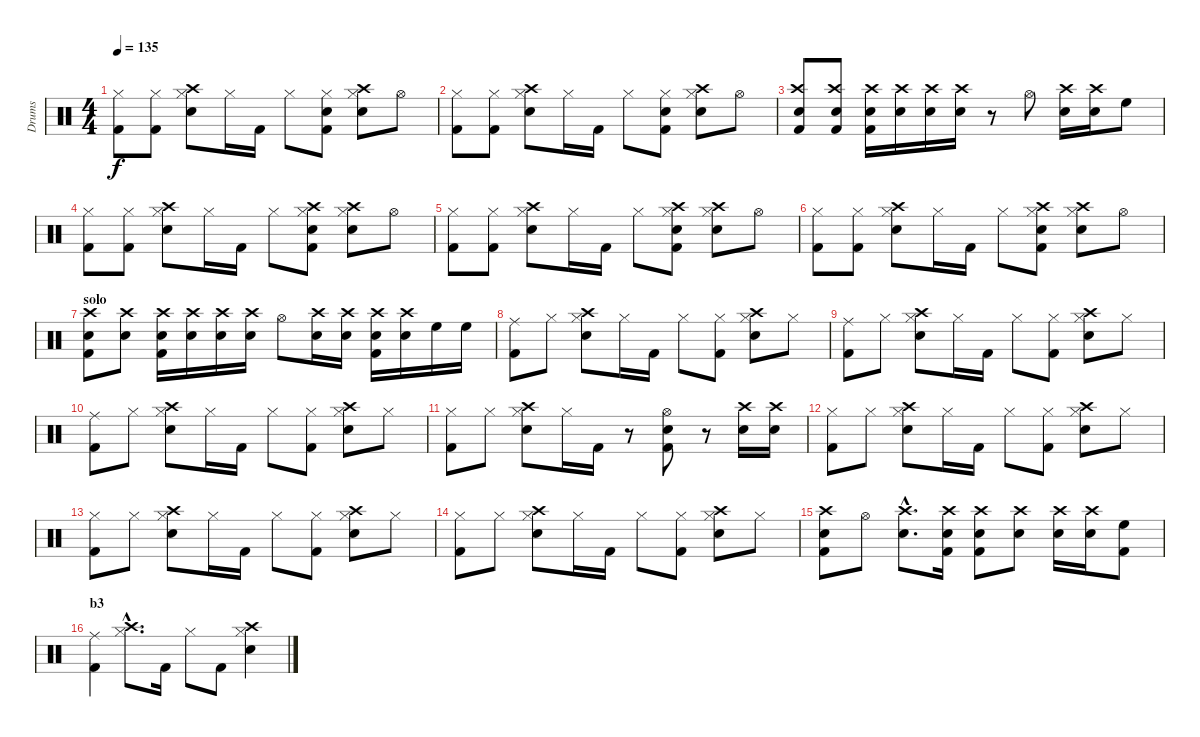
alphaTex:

\track ("Drums" "Drums") {instrument percussion}
\staff {score}
\articulation defaults
\ts (4 4)
\tempo 135
\clef neutral
\ks c
("Hi-Hat (closed)" "Kick (hit) 2").8{dy f} ("Hi-Hat (closed)" "Kick (hit) 2").8 ("Crash high (hit)" "Hi-Hat (closed)" "Snare (hit) 2").8 "Hi-Hat (closed)".16 "Kick (hit) 2".16 "Hi-Hat (closed)".8 ("Hi-Hat (closed)" "Snare (hit) 2" "Kick (hit) 2").8 ("Crash high (hit)" "Hi-Hat (closed)" "Snare (hit) 2").8 "Hi-Hat (open)".8 |
("Hi-Hat (closed)" "Kick (hit) 2").8 ("Hi-Hat (closed)" "Kick (hit) 2").8 ("Crash high (hit)" "Hi-Hat (closed)" "Snare (hit) 2").8 "Hi-Hat (closed)".16 "Kick (hit) 2".16 "Hi-Hat (closed)".8 ("Hi-Hat (closed)" "Snare (hit) 2" "Kick (hit) 2").8 ("Crash high (hit)" "Hi-Hat (closed)" "Snare (hit) 2").8 "Hi-Hat (open)".8 |
("Crash high (hit)" "Snare (hit) 2" "Kick (hit) 2").8 ("Crash high (hit)" "Snare (hit) 2" "Kick (hit) 2").8 ("Crash high (hit)" "Snare (hit) 2" "Kick (hit) 2").16 ("Crash high (hit)" "Snare (hit) 2").16 ("Crash high (hit)" "Snare (hit) 2").16 ("Crash high (hit)" "Snare (hit) 2").16 r.8 "Hi-Hat (open)".8 ("Crash high (hit)" "Snare (hit) 2").16 ("Crash high (hit)" "Snare (hit) 2").16 "High Floor Tom (hit)".8 |
("Hi-Hat (closed)" "Kick (hit) 2").8 ("Hi-Hat (closed)" "Kick (hit) 2").8 ("Crash high (hit)" "Hi-Hat (closed)" "Snare (hit) 2").8 "Hi-Hat (closed)".16 "Kick (hit) 2".16 "Hi-Hat (closed)".8 ("Crash high (hit)" "Hi-Hat (closed)" "Snare (hit) 2" "Kick (hit) 2").8 ("Crash high (hit)" "Hi-Hat (closed)" "Snare (hit) 2").8 "Hi-Hat (open)".8 |
("Hi-Hat (closed)" "Kick (hit) 2").8 ("Hi-Hat (closed)" "Kick (hit) 2").8 ("Crash high (hit)" "Hi-Hat (closed)" "Snare (hit) 2").8 "Hi-Hat (closed)".16 "Kick (hit) 2".16 "Hi-Hat (closed)".8 ("Crash high (hit)" "Hi-Hat (closed)" "Snare (hit) 2" "Kick (hit) 2").8 ("Crash high (hit)" "Hi-Hat (closed)" "Snare (hit) 2").8 "Hi-Hat (open)".8 |
("Hi-Hat (closed)" "Kick (hit) 2").8 ("Hi-Hat (closed)" "Kick (hit) 2").8 ("Crash high (hit)" "Hi-Hat (closed)" "Snare (hit) 2").8 "Hi-Hat (closed)".16 "Kick (hit) 2".16 "Hi-Hat (closed)".8 ("Crash high (hit)" "Hi-Hat (closed)" "Snare (hit) 2" "Kick (hit) 2").8 ("Crash high (hit)" "Hi-Hat (closed)" "Snare (hit) 2").8 "Hi-Hat (open)".8 |
\section ("" "solo")
("Crash high (hit)" "Snare (hit) 2" "Kick (hit) 2").8 ("Crash high (hit)" "Snare (hit) 2").8 ("Crash high (hit)" "Snare (hit) 2" "Kick (hit) 2").16 ("Crash high (hit)" "Snare (hit) 2").16 ("Crash high (hit)" "Snare (hit) 2").16 ("Crash high (hit)" "Snare (hit) 2").16 "Hi-Hat (open)".8 ("Crash high (hit)" "Snare (hit) 2").16 ("Crash high (hit)" "Snare (hit) 2").16 ("Crash high (hit)" "Snare (hit) 2" "Kick (hit) 2").16 ("Crash high (hit)" "Snare (hit) 2").16 "High Floor Tom (hit)".16 "High Floor Tom (hit)".16 |
("Ride (middle)" "Kick (hit) 2").8 "Hi-Hat (closed)".8 ("Crash high (hit)" "Hi-Hat (closed)" "Snare (hit) 2").8 "Hi-Hat (closed)".16 "Kick (hit) 2".16 "Hi-Hat (closed)".8 ("Hi-Hat (closed)" "Kick (hit) 2").8 ("Crash high (hit)" "Hi-Hat (closed)" "Snare (hit) 2").8 "Hi-Hat (closed)".8 |
("Ride (middle)" "Kick (hit) 2").8 "Hi-Hat (closed)".8 ("Crash high (hit)" "Hi-Hat (closed)" "Snare (hit) 2").8 "Hi-Hat (closed)".16 "Kick (hit) 2".16 "Hi-Hat (closed)".8 ("Hi-Hat (closed)" "Kick (hit) 2").8 ("Crash high (hit)" "Hi-Hat (closed)" "Snare (hit) 2").8 "Hi-Hat (closed)".8 |
("Ride (middle)" "Kick (hit) 2").8 "Hi-Hat (closed)".8 ("Crash high (hit)" "Hi-Hat (closed)" "Snare (hit) 2").8 "Hi-Hat (closed)".16 "Kick (hit) 2".16 "Hi-Hat (closed)".8 ("Hi-Hat (closed)" "Kick (hit) 2").8 ("Crash high (hit)" "Hi-Hat (closed)" "Snare (hit) 2").8 "Hi-Hat (closed)".8 |
("Hi-Hat (closed)" "Kick (hit) 2").8 "Hi-Hat (closed)".8 ("Crash high (hit)" "Hi-Hat (closed)" "Snare (hit) 2").8 "Hi-Hat (closed)".16 "Kick (hit) 2".16 r.8 ("Hi-Hat (open)" "Snare (hit) 2" "Kick (hit) 2").8 r.8 ("Crash high (hit)" "Snare (hit) 2").16 ("Crash high (hit)" "Snare (hit) 2").16 |
("Hi-Hat (closed)" "Kick (hit) 2").8 "Hi-Hat (closed)".8 ("Crash high (hit)" "Hi-Hat (closed)" "Snare (hit) 2").8 "Hi-Hat (closed)".16 "Kick (hit) 2".16 "Hi-Hat (closed)".8 ("Hi-Hat (closed)" "Kick (hit) 2").8 ("Crash high (hit)" "Hi-Hat (closed)" "Snare (hit) 2").8 "Hi-Hat (closed)".8 |
("Hi-Hat (closed)" "Kick (hit) 2").8 "Hi-Hat (closed)".8 ("Crash high (hit)" "Hi-Hat (closed)" "Snare (hit) 2").8 "Hi-Hat (closed)".16 "Kick (hit) 2".16 "Hi-Hat (closed)".8 ("Hi-Hat (closed)" "Kick (hit) 2").8 ("Crash high (hit)" "Hi-Hat (closed)" "Snare (hit) 2").8 "Hi-Hat (closed)".8 |
("Hi-Hat (closed)" "Kick (hit) 2").8 "Hi-Hat (closed)".8 ("Crash high (hit)" "Hi-Hat (closed)" "Snare (hit) 2").8 "Hi-Hat (closed)".16 "Kick (hit) 2".16 "Hi-Hat (closed)".8 ("Hi-Hat (closed)" "Kick (hit) 2").8 ("Crash high (hit)" "Hi-Hat (closed)" "Snare (hit) 2").8 "Hi-Hat (closed)".8 |
("Crash high (hit)" "Snare (hit) 2" "Kick (hit) 2").8 "Hi-Hat (open)".8 ("Crash high (hit)"{hac} "Snare (hit) 2"{hac}).8{d} ("Crash high (hit)" "Snare (hit) 2" "Kick (hit) 2").16 ("Crash high (hit)" "Snare (hit) 2" "Kick (hit) 2").8 ("Crash high (hit)" "Snare (hit) 2").8 ("Crash high (hit)" "Snare (hit) 2").16 ("Crash high (hit)" "Snare (hit) 2").16 ("High Floor Tom (hit)" "Kick (hit) 2").8 |
\section ("" "b3")
("Ride (middle)" "Kick (hit) 2").4 ("Crash high (hit)"{hac} "Hi-Hat (closed)"{hac}).8{d} "Kick (hit) 2".16 "Hi-Hat (closed)".8 "Kick (hit) 2".8 ("Crash high (hit)" "Hi-Hat (closed)" "Snare (hit) 2").4
